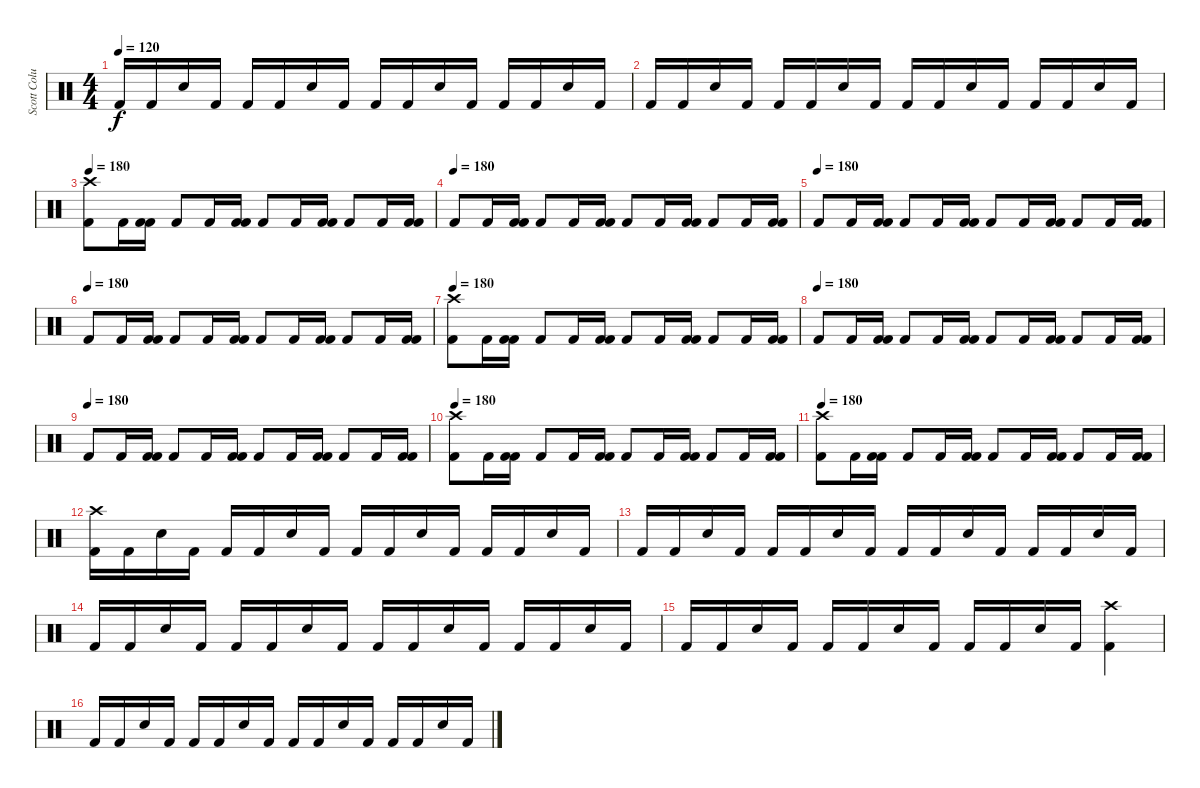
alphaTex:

\track ("Scott Columbus" "Scott Colu") {instrument percussion}
\staff {score}
\articulation defaults
\ts (4 4)
\tempo 120
\clef neutral
\ks c "Kick (hit) 2".16{dy f} "Kick (hit) 2".16 "Snare (hit) 2".16 "Kick (hit) 2".16 "Kick (hit) 2".16 "Kick (hit) 2".16 "Snare (hit) 2".16 "Kick (hit) 2".16 "Kick (hit) 2".16 "Kick (hit) 2".16 "Snare (hit) 2".16 "Kick (hit) 2".16 "Kick (hit) 2".16 "Kick (hit) 2".16 "Snare (hit) 2".16 "Kick (hit) 2".16
|
"Kick (hit) 2".16 "Kick (hit) 2".16 "Snare (hit) 2".16 "Kick (hit) 2".16 "Kick (hit) 2".16 "Kick (hit) 2".16 "Snare (hit) 2".16 "Kick (hit) 2".16 "Kick (hit) 2".16 "Kick (hit) 2".16 "Snare (hit) 2".16 "Kick (hit) 2".16 "Kick (hit) 2".16 "Kick (hit) 2".16 "Snare (hit) 2".16 "Kick (hit) 2".16 |
\tempo 180
("Crash high (hit)" "Kick (hit) 2").8 "Kick (hit) 2".16 ("Kick (hit) 2" "Kick (hit) 2").16 "Kick (hit) 2".8 "Kick (hit) 2".16 ("Kick (hit) 2" "Kick (hit) 2").16 "Kick (hit) 2".8 "Kick (hit) 2".16 ("Kick (hit) 2" "Kick (hit) 2").16 "Kick (hit) 2".8 "Kick (hit) 2".16 ("Kick (hit) 2" "Kick (hit) 2").16 |
\tempo (180)
"Kick (hit) 2".8 "Kick (hit) 2".16 ("Kick (hit) 2" "Kick (hit) 2").16 "Kick (hit) 2".8 "Kick (hit) 2".16 ("Kick (hit) 2" "Kick (hit) 2").16 "Kick (hit) 2".8 "Kick (hit) 2".16 ("Kick (hit) 2" "Kick (hit) 2").16 "Kick (hit) 2".8 "Kick (hit) 2".16 ("Kick (hit) 2" "Kick (hit) 2").16 |
\tempo (180)
"Kick (hit) 2".8 "Kick (hit) 2".16 ("Kick (hit) 2" "Kick (hit) 2").16 "Kick (hit) 2".8 "Kick (hit) 2".16 ("Kick (hit) 2" "Kick (hit) 2").16 "Kick (hit) 2".8 "Kick (hit) 2".16 ("Kick (hit) 2" "Kick (hit) 2").16 "Kick (hit) 2".8 "Kick (hit) 2".16 ("Kick (hit) 2" "Kick (hit) 2").16 |
\tempo (180)
"Kick (hit) 2".8 "Kick (hit) 2".16 ("Kick (hit) 2" "Kick (hit) 2").16 "Kick (hit) 2".8 "Kick (hit) 2".16 ("Kick (hit) 2" "Kick (hit) 2").16 "Kick (hit) 2".8 "Kick (hit) 2".16 ("Kick (hit) 2" "Kick (hit) 2").16 "Kick (hit) 2".8 "Kick (hit) 2".16 ("Kick (hit) 2" "Kick (hit) 2").16 |
\tempo 180
("Crash high (hit)" "Kick (hit) 2").8 "Kick (hit) 2".16 ("Kick (hit) 2" "Kick (hit) 2").16 "Kick (hit) 2".8 "Kick (hit) 2".16 ("Kick (hit) 2" "Kick (hit) 2").16 "Kick (hit) 2".8 "Kick (hit) 2".16 ("Kick (hit) 2" "Kick (hit) 2").16 "Kick (hit) 2".8 "Kick (hit) 2".16 ("Kick (hit) 2" "Kick (hit) 2").16 |
\tempo (180)
"Kick (hit) 2".8 "Kick (hit) 2".16 ("Kick (hit) 2" "Kick (hit) 2").16 "Kick (hit) 2".8 "Kick (hit) 2".16 ("Kick (hit) 2" "Kick (hit) 2").16 "Kick (hit) 2".8 "Kick (hit) 2".16 ("Kick (hit) 2" "Kick (hit) 2").16 "Kick (hit) 2".8 "Kick (hit) 2".16 ("Kick (hit) 2" "Kick (hit) 2").16 |
\tempo (180)
"Kick (hit) 2".8 "Kick (hit) 2".16 ("Kick (hit) 2" "Kick (hit) 2").16 "Kick (hit) 2".8 "Kick (hit) 2".16 ("Kick (hit) 2" "Kick (hit) 2").16 "Kick (hit) 2".8 "Kick (hit) 2".16 ("Kick (hit) 2" "Kick (hit) 2").16 "Kick (hit) 2".8 "Kick (hit) 2".16 ("Kick (hit) 2" "Kick (hit) 2").16 |
\tempo 180
("Crash high (hit)" "Kick (hit) 2").8 "Kick (hit) 2".16 ("Kick (hit) 2" "Kick (hit) 2").16 "Kick (hit) 2".8 "Kick (hit) 2".16 ("Kick (hit) 2" "Kick (hit) 2").16 "Kick (hit) 2".8 "Kick (hit) 2".16 ("Kick (hit) 2" "Kick (hit) 2").16 "Kick (hit) 2".8 "Kick (hit) 2".16 ("Kick (hit) 2" "Kick (hit) 2").16 |
\tempo 180
("Crash high (hit)" "Kick (hit) 2").8 "Kick (hit) 2".16 ("Kick (hit) 2" "Kick (hit) 2").16 "Kick (hit) 2".8 "Kick (hit) 2".16 ("Kick (hit) 2" "Kick (hit) 2").16 "Kick (hit) 2".8 "Kick (hit) 2".16 ("Kick (hit) 2" "Kick (hit) 2").16 "Kick (hit) 2".8 "Kick (hit) 2".16 ("Kick (hit) 2" "Kick (hit) 2").16 |
("Crash high (hit)" "Kick (hit) 2").16 "Kick (hit) 2".16 "Snare (hit) 2".16 "Kick (hit) 2".16 "Kick (hit) 2".16 "Kick (hit) 2".16 "Snare (hit) 2".16 "Kick (hit) 2".16 "Kick (hit) 2".16 "Kick (hit) 2".16 "Snare (hit) 2".16 "Kick (hit) 2".16 "Kick (hit) 2".16 "Kick (hit) 2".16 "Snare (hit) 2".16 "Kick (hit) 2".16 |
"Kick (hit) 2".16 "Kick (hit) 2".16 "Snare (hit) 2".16 "Kick (hit) 2".16 "Kick (hit) 2".16 "Kick (hit) 2".16 "Snare (hit) 2".16 "Kick (hit) 2".16 "Kick (hit) 2".16 "Kick (hit) 2".16 "Snare (hit) 2".16 "Kick (hit) 2".16 "Kick (hit) 2".16 "Kick (hit) 2".16 "Snare (hit) 2".16 "Kick (hit) 2".16 |
"Kick (hit) 2".16 "Kick (hit) 2".16 "Snare (hit) 2".16 "Kick (hit) 2".16 "Kick (hit) 2".16 "Kick (hit) 2".16 "Snare (hit) 2".16 "Kick (hit) 2".16 "Kick (hit) 2".16 "Kick (hit) 2".16 "Snare (hit) 2".16 "Kick (hit) 2".16 "Kick (hit) 2".16 "Kick (hit) 2".16 "Snare (hit) 2".16 "Kick (hit) 2".16 |
"Kick (hit) 2".16 "Kick (hit) 2".16 "Snare (hit) 2".16 "Kick (hit) 2".16 "Kick (hit) 2".16 "Kick (hit) 2".16 "Snare (hit) 2".16 "Kick (hit) 2".16 "Kick (hit) 2".16 "Kick (hit) 2".16 "Snare (hit) 2".16 "Kick (hit) 2".16 ("Kick (hit) 2" "Crash high (hit)").4 |
"Kick (hit) 2".16 "Kick (hit) 2".16 "Snare (hit) 2".16 "Kick (hit) 2".16 "Kick (hit) 2".16 "Kick (hit) 2".16 "Snare (hit) 2".16 "Kick (hit) 2".16 "Kick (hit) 2".16 "Kick (hit) 2".16 "Snare (hit) 2".16 "Kick (hit) 2".16 "Kick (hit) 2".16 "Kick (hit) 2".16 "Snare (hit) 2".16 "Kick (hit) 2".16
